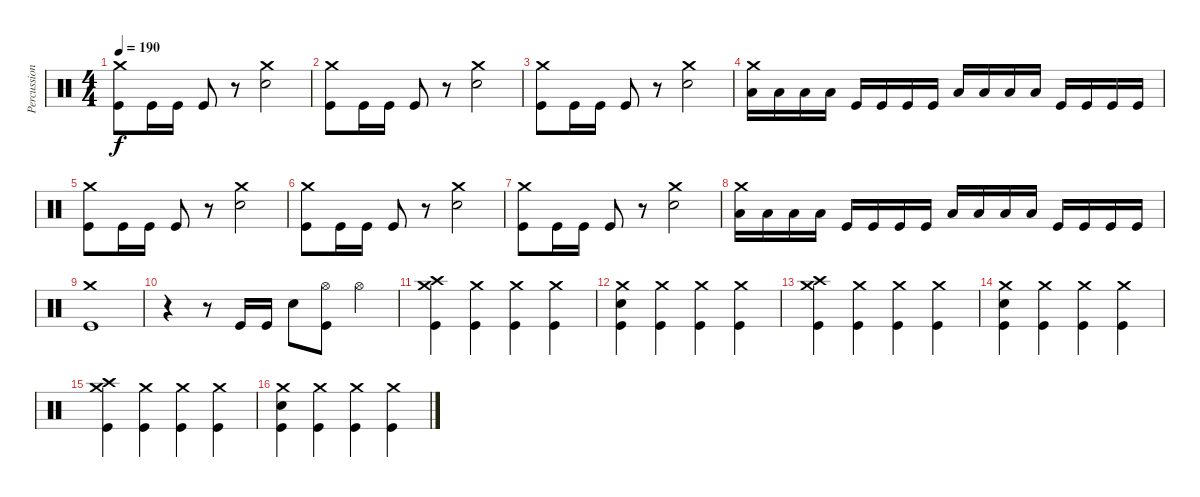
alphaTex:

\track ("Percussion" "Percussion") {instrument percussion}
\staff {score}
\articulation defaults
\ts (4 4)
\tempo 190
\clef neutral
\ks c
("Crash medium (hit)" "Kick (hit)").8{dy f} "Kick (hit)".16 "Kick (hit)".16 "Kick (hit)".8 r.8 ("Crash medium (hit)" "Electric Snare (hit)").2 |
("Crash medium (hit)" "Kick (hit)").8 "Kick (hit)".16 "Kick (hit)".16 "Kick (hit)".8 r.8 ("Crash medium (hit)" "Electric Snare (hit)").2 |
("Crash medium (hit)" "Kick (hit)").8 "Kick (hit)".16 "Kick (hit)".16 "Kick (hit)".8 r.8 ("Crash medium (hit)" "Electric Snare (hit)").2 |
("Crash medium (hit)" "Low Tom (hit)").16 "Low Tom (hit)".16 "Low Tom (hit)".16 "Low Tom (hit)".16 "Kick (hit)".16 "Kick (hit)".16 "Kick (hit)".16 "Kick (hit)".16 "Low Tom (hit)".16 "Low Tom (hit)".16 "Low Tom (hit)".16 "Low Tom (hit)".16 "Kick (hit)".16 "Kick (hit)".16 "Kick (hit)".16 "Kick (hit)".16 |
("Crash medium (hit)" "Kick (hit)").8 "Kick (hit)".16 "Kick (hit)".16 "Kick (hit)".8 r.8 ("Crash medium (hit)" "Electric Snare (hit)").2 |
("Crash medium (hit)" "Kick (hit)").8 "Kick (hit)".16 "Kick (hit)".16 "Kick (hit)".8 r.8 ("Crash medium (hit)" "Electric Snare (hit)").2 |
("Crash medium (hit)" "Kick (hit)").8 "Kick (hit)".16 "Kick (hit)".16 "Kick (hit)".8 r.8 ("Crash medium (hit)" "Electric Snare (hit)").2 |
("Crash medium (hit)" "Low Tom (hit)").16 "Low Tom (hit)".16 "Low Tom (hit)".16 "Low Tom (hit)".16 "Kick (hit)".16 "Kick (hit)".16 "Kick (hit)".16 "Kick (hit)".16 "Low Tom (hit)".16 "Low Tom (hit)".16 "Low Tom (hit)".16 "Low Tom (hit)".16 "Kick (hit)".16 "Kick (hit)".16 "Kick (hit)".16 "Kick (hit)".16 |
("Crash medium (hit)" "Kick (hit)").1 |
r.4 r.8 "Kick (hit)".16 "Kick (hit)".16 "Electric Snare (hit)".8 ("Hi-Hat (open)" "Kick (hit)").8 "Hi-Hat (open)".4 |
("Crash medium (hit)" "Crash high (hit)" "Kick (hit)").4 ("Crash medium (hit)" "Kick (hit)").4 ("Crash medium (hit)" "Kick (hit)").4 ("Crash medium (hit)" "Kick (hit)").4 |
("Crash medium (hit)" "Electric Snare (hit)" "Kick (hit)").4 ("Crash medium (hit)" "Kick (hit)").4 ("Crash medium (hit)" "Kick (hit)").4 ("Crash medium (hit)" "Kick (hit)").4 |
("Crash medium (hit)" "Crash high (hit)" "Kick (hit)").4 ("Crash medium (hit)" "Kick (hit)").4 ("Crash medium (hit)" "Kick (hit)").4 ("Crash medium (hit)" "Kick (hit)").4 |
("Crash medium (hit)" "Electric Snare (hit)" "Kick (hit)").4 ("Crash medium (hit)" "Kick (hit)").4 ("Crash medium (hit)" "Kick (hit)").4 ("Crash medium (hit)" "Kick (hit)").4 |
("Crash medium (hit)" "Crash high (hit)" "Kick (hit)").4 ("Crash medium (hit)" "Kick (hit)").4 ("Crash medium (hit)" "Kick (hit)").4 ("Crash medium (hit)" "Kick (hit)").4 |
("Crash medium (hit)" "Electric Snare (hit)" "Kick (hit)").4 ("Crash medium (hit)" "Kick (hit)").4 ("Crash medium (hit)" "Kick (hit)").4 ("Crash medium (hit)" "Kick (hit)").4
